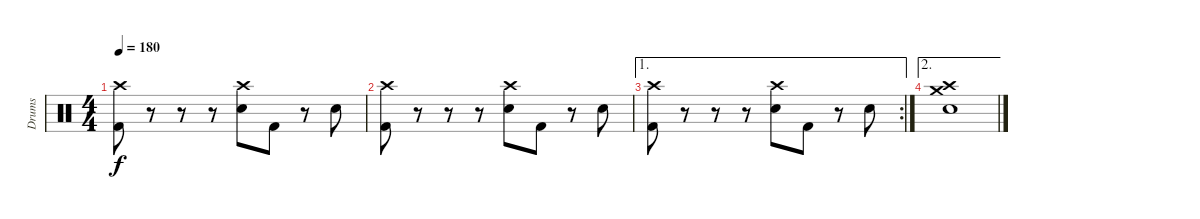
\track ("Drums" "Drums") {instrument percussion}
\staff {score}
\articulation defaults
\ts (4 4)
\tempo 180
\clef neutral
\ks c
("Crash high (hit)" "Kick (hit) 2").8{dy f} r.8 r.8 r.8 ("Crash high (hit)" "Snare (hit) 2").8 "Kick (hit) 2".8 r.8 "Snare (hit) 2".8 |
("Crash high (hit)" "Kick (hit) 2").8 r.8 r.8 r.8 ("Crash high (hit)" "Snare (hit) 2").8 "Kick (hit) 2".8 r.8 "Snare (hit) 2".8 |
\ae 1
\rc 2
("Crash high (hit)" "Kick (hit) 2").8 r.8 r.8 r.8 ("Crash high (hit)" "Snare (hit) 2").8 "Kick (hit) 2".8 r.8 "Snare (hit) 2".8 |
\ae 2
("Crash high (hit)" "Crash medium (hit)" "Snare (hit) 2").1
